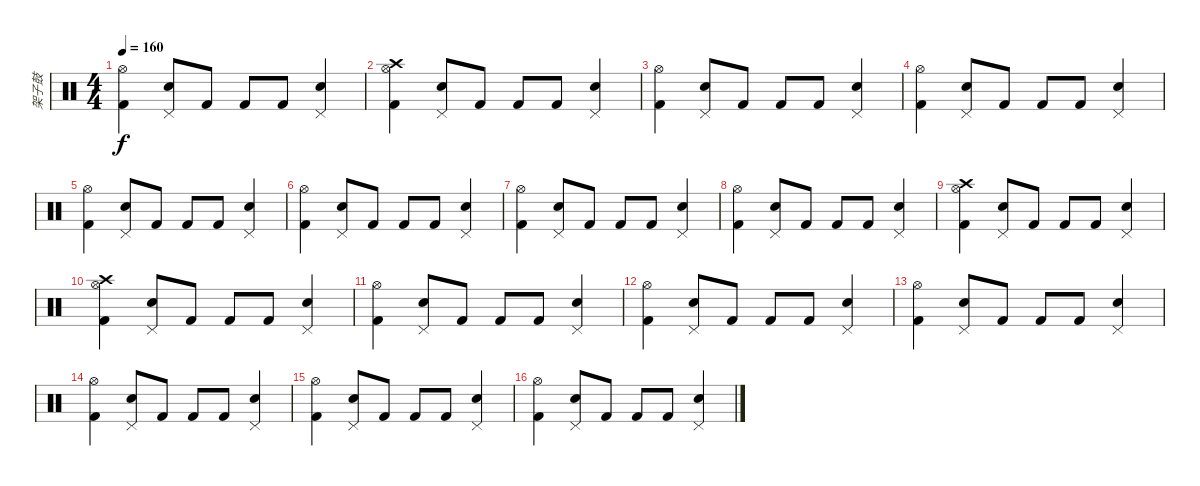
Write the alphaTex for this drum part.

\track ("架子鼓" "架子鼓") {instrument percussion}
\staff {score}
\articulation defaults
\ts (4 4)
\tempo 160
\clef neutral
\ks c
("Kick (hit) 2" "Hi-Hat (open)").4{dy f} ("Electric Snare (hit)" "Pedal Hi-Hat (hit)").8 "Kick (hit) 2".8 "Kick (hit) 2".8 "Kick (hit) 2".8 ("Electric Snare (hit)" "Pedal Hi-Hat (hit)").4 |
("Kick (hit) 2" "Hi-Hat (open)" "Crash high (hit)").4 ("Electric Snare (hit)" "Pedal Hi-Hat (hit)").8 "Kick (hit) 2".8 "Kick (hit) 2".8 "Kick (hit) 2".8 ("Electric Snare (hit)" "Pedal Hi-Hat (hit)").4 |
("Kick (hit) 2" "Hi-Hat (open)").4 ("Electric Snare (hit)" "Pedal Hi-Hat (hit)").8 "Kick (hit) 2".8 "Kick (hit) 2".8 "Kick (hit) 2".8 ("Electric Snare (hit)" "Pedal Hi-Hat (hit)").4 |
("Kick (hit) 2" "Hi-Hat (open)").4 ("Electric Snare (hit)" "Pedal Hi-Hat (hit)").8 "Kick (hit) 2".8 "Kick (hit) 2".8 "Kick (hit) 2".8 ("Electric Snare (hit)" "Pedal Hi-Hat (hit)").4 |
("Kick (hit) 2" "Hi-Hat (open)").4 ("Electric Snare (hit)" "Pedal Hi-Hat (hit)").8 "Kick (hit) 2".8 "Kick (hit) 2".8 "Kick (hit) 2".8 ("Electric Snare (hit)" "Pedal Hi-Hat (hit)").4 |
("Kick (hit) 2" "Hi-Hat (open)").4 ("Electric Snare (hit)" "Pedal Hi-Hat (hit)").8 "Kick (hit) 2".8 "Kick (hit) 2".8 "Kick (hit) 2".8 ("Electric Snare (hit)" "Pedal Hi-Hat (hit)").4 |
("Kick (hit) 2" "Hi-Hat (open)").4 ("Electric Snare (hit)" "Pedal Hi-Hat (hit)").8 "Kick (hit) 2".8 "Kick (hit) 2".8 "Kick (hit) 2".8 ("Electric Snare (hit)" "Pedal Hi-Hat (hit)").4 |
("Kick (hit) 2" "Hi-Hat (open)").4 ("Electric Snare (hit)" "Pedal Hi-Hat (hit)").8 "Kick (hit) 2".8 "Kick (hit) 2".8 "Kick (hit) 2".8 ("Electric Snare (hit)" "Pedal Hi-Hat (hit)").4 |
("Kick (hit) 2" "Hi-Hat (open)" "Crash high (hit)").4 ("Electric Snare (hit)" "Pedal Hi-Hat (hit)").8 "Kick (hit) 2".8 "Kick (hit) 2".8 "Kick (hit) 2".8 ("Electric Snare (hit)" "Pedal Hi-Hat (hit)").4 |
("Kick (hit) 2" "Hi-Hat (open)" "Crash high (hit)").4 ("Electric Snare (hit)" "Pedal Hi-Hat (hit)").8 "Kick (hit) 2".8 "Kick (hit) 2".8 "Kick (hit) 2".8 ("Electric Snare (hit)" "Pedal Hi-Hat (hit)").4 |
("Kick (hit) 2" "Hi-Hat (open)").4 ("Electric Snare (hit)" "Pedal Hi-Hat (hit)").8 "Kick (hit) 2".8 "Kick (hit) 2".8 "Kick (hit) 2".8 ("Electric Snare (hit)" "Pedal Hi-Hat (hit)").4 |
("Kick (hit) 2" "Hi-Hat (open)").4 ("Electric Snare (hit)" "Pedal Hi-Hat (hit)").8 "Kick (hit) 2".8 "Kick (hit) 2".8 "Kick (hit) 2".8 ("Electric Snare (hit)" "Pedal Hi-Hat (hit)").4 |
("Kick (hit) 2" "Hi-Hat (open)").4 ("Electric Snare (hit)" "Pedal Hi-Hat (hit)").8 "Kick (hit) 2".8 "Kick (hit) 2".8 "Kick (hit) 2".8 ("Electric Snare (hit)" "Pedal Hi-Hat (hit)").4 |
("Kick (hit) 2" "Hi-Hat (open)").4 ("Electric Snare (hit)" "Pedal Hi-Hat (hit)").8 "Kick (hit) 2".8 "Kick (hit) 2".8 "Kick (hit) 2".8 ("Electric Snare (hit)" "Pedal Hi-Hat (hit)").4 |
("Kick (hit) 2" "Hi-Hat (open)").4 ("Electric Snare (hit)" "Pedal Hi-Hat (hit)").8 "Kick (hit) 2".8 "Kick (hit) 2".8 "Kick (hit) 2".8 ("Electric Snare (hit)" "Pedal Hi-Hat (hit)").4 |
("Kick (hit) 2" "Hi-Hat (open)").4 ("Electric Snare (hit)" "Pedal Hi-Hat (hit)").8 "Kick (hit) 2".8 "Kick (hit) 2".8 "Kick (hit) 2".8 ("Electric Snare (hit)" "Pedal Hi-Hat (hit)").4
